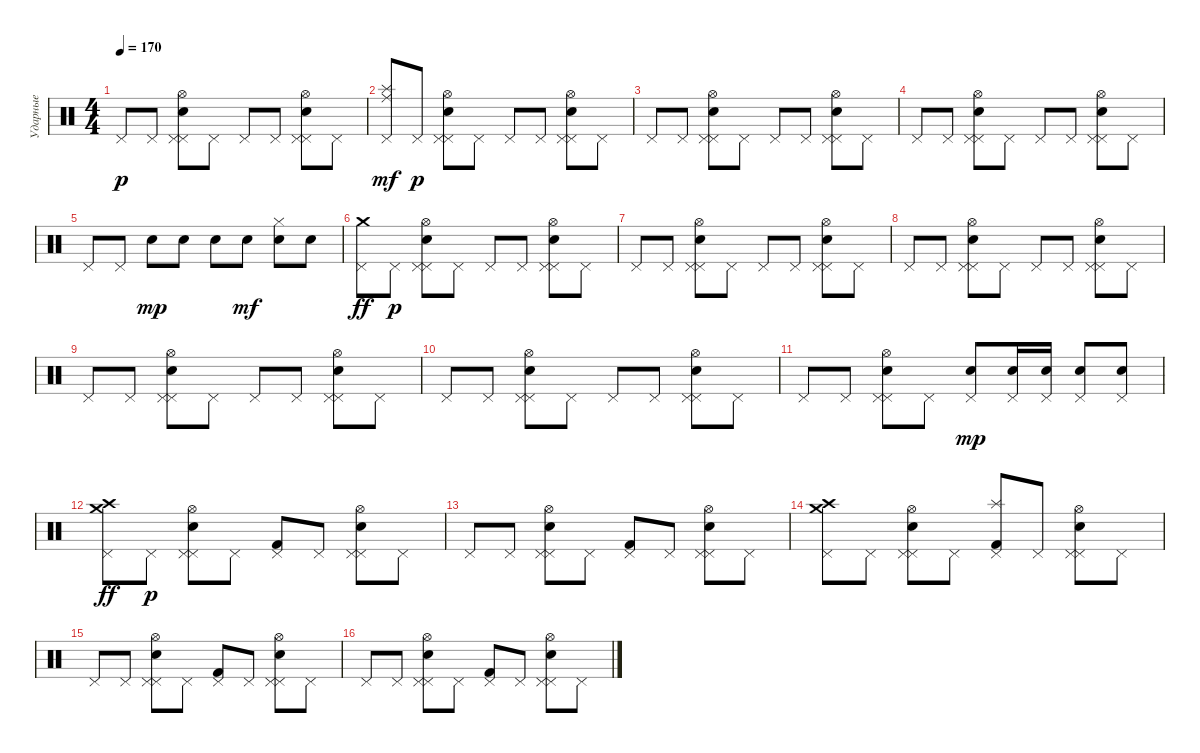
\track ("Ударные" "Ударные") {instrument percussion}
\staff {score}
\articulation defaults
\ts (4 4)
\tempo 170
\clef neutral
\ks c "Pedal Hi-Hat (hit)".8{dy p} "Pedal Hi-Hat (hit)".8
("Pedal Hi-Hat (hit)" "Snare (hit) 2" "Pedal Hi-Hat (hit)" "Hi-Hat (open)").8 "Pedal Hi-Hat (hit)".8 "Pedal Hi-Hat (hit)".8 "Pedal Hi-Hat (hit)".8 ("Pedal Hi-Hat (hit)" "Snare (hit) 2" "Pedal Hi-Hat (hit)" "Hi-Hat (open)").8 "Pedal Hi-Hat (hit)".8 |
("Pedal Hi-Hat (hit)" "Splash (hit)" "Ride (middle)").8{dy mf} "Pedal Hi-Hat (hit)".8{dy p} ("Pedal Hi-Hat (hit)" "Snare (hit) 2" "Pedal Hi-Hat (hit)" "Hi-Hat (open)").8 "Pedal Hi-Hat (hit)".8 "Pedal Hi-Hat (hit)".8 "Pedal Hi-Hat (hit)".8 ("Pedal Hi-Hat (hit)" "Snare (hit) 2" "Pedal Hi-Hat (hit)" "Hi-Hat (open)").8 "Pedal Hi-Hat (hit)".8 |
"Pedal Hi-Hat (hit)".8 "Pedal Hi-Hat (hit)".8 ("Pedal Hi-Hat (hit)" "Snare (hit) 2" "Pedal Hi-Hat (hit)" "Hi-Hat (open)").8 "Pedal Hi-Hat (hit)".8 "Pedal Hi-Hat (hit)".8 "Pedal Hi-Hat (hit)".8 ("Pedal Hi-Hat (hit)" "Snare (hit) 2" "Pedal Hi-Hat (hit)" "Hi-Hat (open)").8 "Pedal Hi-Hat (hit)".8 |
"Pedal Hi-Hat (hit)".8 "Pedal Hi-Hat (hit)".8 ("Pedal Hi-Hat (hit)" "Snare (hit) 2" "Pedal Hi-Hat (hit)" "Hi-Hat (open)").8 "Pedal Hi-Hat (hit)".8 "Pedal Hi-Hat (hit)".8 "Pedal Hi-Hat (hit)".8 ("Pedal Hi-Hat (hit)" "Snare (hit) 2" "Pedal Hi-Hat (hit)" "Hi-Hat (open)").8 "Pedal Hi-Hat (hit)".8 |
"Pedal Hi-Hat (hit)".8 "Pedal Hi-Hat (hit)".8 "Electric Snare (hit)".8{dy mp} "Electric Snare (hit)".8 "Electric Snare (hit)".8 "Snare (hit) 2".8{dy mf} ("Electric Snare (hit)" "Hi-Hat (closed)").8 "Electric Snare (hit)".8 |
("Pedal Hi-Hat (hit)" "Crash medium (hit)").8{dy ff} "Pedal Hi-Hat (hit)".8{dy p} ("Pedal Hi-Hat (hit)" "Snare (hit) 2" "Pedal Hi-Hat (hit)" "Hi-Hat (open)").8 "Pedal Hi-Hat (hit)".8 "Pedal Hi-Hat (hit)".8 "Pedal Hi-Hat (hit)".8 ("Pedal Hi-Hat (hit)" "Snare (hit) 2" "Pedal Hi-Hat (hit)" "Hi-Hat (open)").8 "Pedal Hi-Hat (hit)".8 |
"Pedal Hi-Hat (hit)".8 "Pedal Hi-Hat (hit)".8 ("Pedal Hi-Hat (hit)" "Snare (hit) 2" "Pedal Hi-Hat (hit)" "Hi-Hat (open)").8 "Pedal Hi-Hat (hit)".8 "Pedal Hi-Hat (hit)".8 "Pedal Hi-Hat (hit)".8 ("Pedal Hi-Hat (hit)" "Snare (hit) 2" "Pedal Hi-Hat (hit)" "Hi-Hat (open)").8 "Pedal Hi-Hat (hit)".8 |
"Pedal Hi-Hat (hit)".8 "Pedal Hi-Hat (hit)".8 ("Pedal Hi-Hat (hit)" "Snare (hit) 2" "Pedal Hi-Hat (hit)" "Hi-Hat (open)").8 "Pedal Hi-Hat (hit)".8 "Pedal Hi-Hat (hit)".8 "Pedal Hi-Hat (hit)".8 ("Pedal Hi-Hat (hit)" "Snare (hit) 2" "Pedal Hi-Hat (hit)" "Hi-Hat (open)").8 "Pedal Hi-Hat (hit)".8 |
"Pedal Hi-Hat (hit)".8 "Pedal Hi-Hat (hit)".8 ("Pedal Hi-Hat (hit)" "Snare (hit) 2" "Pedal Hi-Hat (hit)" "Hi-Hat (open)").8 "Pedal Hi-Hat (hit)".8 "Pedal Hi-Hat (hit)".8 "Pedal Hi-Hat (hit)".8 ("Pedal Hi-Hat (hit)" "Snare (hit) 2" "Pedal Hi-Hat (hit)" "Hi-Hat (open)").8 "Pedal Hi-Hat (hit)".8 |
"Pedal Hi-Hat (hit)".8 "Pedal Hi-Hat (hit)".8 ("Pedal Hi-Hat (hit)" "Snare (hit) 2" "Pedal Hi-Hat (hit)" "Hi-Hat (open)").8 "Pedal Hi-Hat (hit)".8 "Pedal Hi-Hat (hit)".8 "Pedal Hi-Hat (hit)".8 ("Pedal Hi-Hat (hit)" "Snare (hit) 2" "Pedal Hi-Hat (hit)" "Hi-Hat (open)").8 "Pedal Hi-Hat (hit)".8 |
"Pedal Hi-Hat (hit)".8 "Pedal Hi-Hat (hit)".8 ("Pedal Hi-Hat (hit)" "Snare (hit) 2" "Pedal Hi-Hat (hit)" "Hi-Hat (open)").8 "Pedal Hi-Hat (hit)".8 ("Electric Snare (hit)" "Pedal Hi-Hat (hit)").8{dy mp} ("Electric Snare (hit)" "Pedal Hi-Hat (hit)").16 ("Electric Snare (hit)" "Pedal Hi-Hat (hit)").16 ("Electric Snare (hit)" "Pedal Hi-Hat (hit)").8 ("Electric Snare (hit)" "Pedal Hi-Hat (hit)").8 |
("Pedal Hi-Hat (hit)" "Crash high (hit)" "Crash medium (hit)").8{dy ff} "Pedal Hi-Hat (hit)".8{dy p} ("Pedal Hi-Hat (hit)" "Snare (hit) 2" "Pedal Hi-Hat (hit)" "Hi-Hat (open)").8 "Pedal Hi-Hat (hit)".8 ("Pedal Hi-Hat (hit)" "Kick (hit) 2").8 "Pedal Hi-Hat (hit)".8 ("Pedal Hi-Hat (hit)" "Snare (hit) 2" "Pedal Hi-Hat (hit)" "Hi-Hat (open)").8 "Pedal Hi-Hat (hit)".8 |
"Pedal Hi-Hat (hit)".8 "Pedal Hi-Hat (hit)".8 ("Pedal Hi-Hat (hit)" "Snare (hit) 2" "Pedal Hi-Hat (hit)" "Hi-Hat (open)").8 "Pedal Hi-Hat (hit)".8 ("Pedal Hi-Hat (hit)" "Kick (hit) 2").8 "Pedal Hi-Hat (hit)".8 ("Pedal Hi-Hat (hit)" "Snare (hit) 2" "Pedal Hi-Hat (hit)" "Hi-Hat (open)").8 "Pedal Hi-Hat (hit)".8 |
("Pedal Hi-Hat (hit)" "Crash high (hit)" "Crash medium (hit)").8 "Pedal Hi-Hat (hit)".8 ("Pedal Hi-Hat (hit)" "Snare (hit) 2" "Pedal Hi-Hat (hit)" "Hi-Hat (open)").8 "Pedal Hi-Hat (hit)".8 ("Splash (hit)" "Pedal Hi-Hat (hit)" "Kick (hit) 2").8 "Pedal Hi-Hat (hit)".8 ("Pedal Hi-Hat (hit)" "Snare (hit) 2" "Pedal Hi-Hat (hit)" "Hi-Hat (open)").8 "Pedal Hi-Hat (hit)".8 |
"Pedal Hi-Hat (hit)".8 "Pedal Hi-Hat (hit)".8 ("Pedal Hi-Hat (hit)" "Snare (hit) 2" "Pedal Hi-Hat (hit)" "Hi-Hat (open)").8 "Pedal Hi-Hat (hit)".8 ("Pedal Hi-Hat (hit)" "Kick (hit) 2").8 "Pedal Hi-Hat (hit)".8 ("Pedal Hi-Hat (hit)" "Snare (hit) 2" "Pedal Hi-Hat (hit)" "Hi-Hat (open)").8 "Pedal Hi-Hat (hit)".8 |
"Pedal Hi-Hat (hit)".8 "Pedal Hi-Hat (hit)".8 ("Pedal Hi-Hat (hit)" "Snare (hit) 2" "Pedal Hi-Hat (hit)" "Hi-Hat (open)").8 "Pedal Hi-Hat (hit)".8 ("Pedal Hi-Hat (hit)" "Kick (hit) 2").8 "Pedal Hi-Hat (hit)".8 ("Pedal Hi-Hat (hit)" "Snare (hit) 2" "Pedal Hi-Hat (hit)" "Hi-Hat (open)").8 "Pedal Hi-Hat (hit)".8
